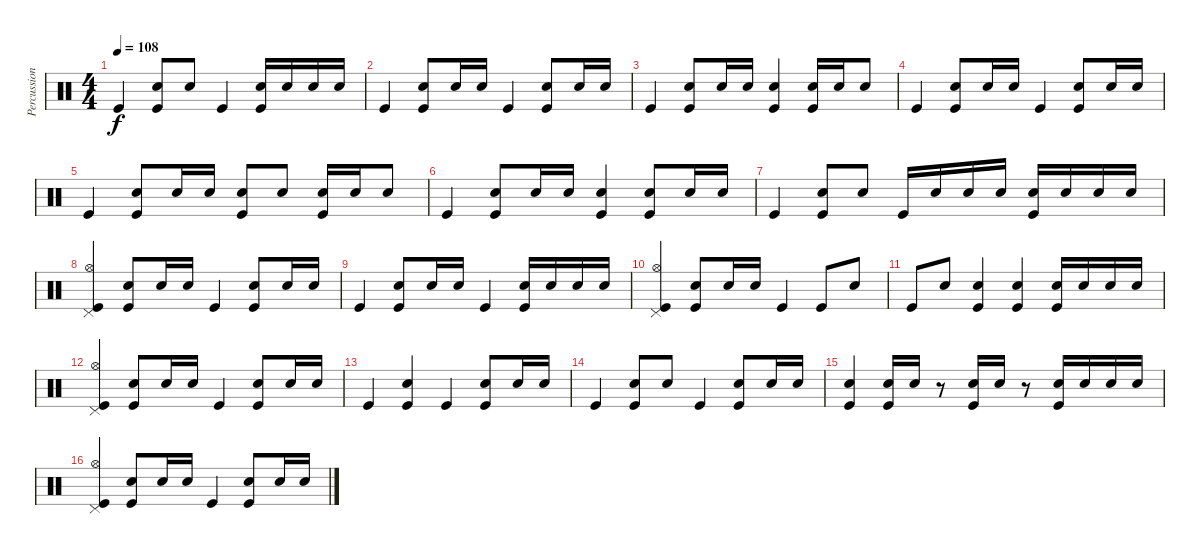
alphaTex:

\track ("Percussion" "Percussion") {instrument percussion}
\staff {score}
\articulation defaults
\ts (4 4)
\tempo 108
\clef neutral
\ks c "Kick (hit)".4{dy f}
("Snare (hit) 2" "Kick (hit)").8 "Snare (hit) 2".8 "Kick (hit)".4 ("Snare (hit) 2" "Kick (hit)").16 "Snare (hit) 2".16 "Snare (hit) 2".16 "Snare (hit) 2".16 |
"Kick (hit)".4 ("Snare (hit) 2" "Kick (hit)").8 "Snare (hit) 2".16 "Snare (hit) 2".16 "Kick (hit)".4 ("Snare (hit) 2" "Kick (hit)").8 "Snare (hit) 2".16 "Snare (hit) 2".16 |
"Kick (hit)".4 ("Snare (hit) 2" "Kick (hit)").8 "Snare (hit) 2".16 "Snare (hit) 2".16 ("Snare (hit) 2" "Kick (hit)").4 ("Snare (hit) 2" "Kick (hit)").16 "Snare (hit) 2".16 "Snare (hit) 2".8 |
"Kick (hit)".4 ("Snare (hit) 2" "Kick (hit)").8 "Snare (hit) 2".16 "Snare (hit) 2".16 "Kick (hit)".4 ("Snare (hit) 2" "Kick (hit)").8 "Snare (hit) 2".16 "Snare (hit) 2".16 |
"Kick (hit)".4 ("Snare (hit) 2" "Kick (hit)").8 "Snare (hit) 2".16 "Snare (hit) 2".16 ("Snare (hit) 2" "Kick (hit)").8 "Snare (hit) 2".8 ("Snare (hit) 2" "Kick (hit)").16 "Snare (hit) 2".16 "Snare (hit) 2".8 |
"Kick (hit)".4 ("Snare (hit) 2" "Kick (hit)").8 "Snare (hit) 2".16 "Snare (hit) 2".16 ("Snare (hit) 2" "Kick (hit)").4 ("Snare (hit) 2" "Kick (hit)").8 "Snare (hit) 2".16 "Snare (hit) 2".16 |
"Kick (hit)".4 ("Snare (hit) 2" "Kick (hit)").8 "Snare (hit) 2".8 "Kick (hit)".16 "Snare (hit) 2".16 "Snare (hit) 2".16 "Snare (hit) 2".16 ("Snare (hit) 2" "Kick (hit)").16 "Snare (hit) 2".16 "Snare (hit) 2".16 "Snare (hit) 2".16 |
("Hi-Hat (open)" "Pedal Hi-Hat (hit)" "Kick (hit)").4 ("Snare (hit) 2" "Kick (hit)").8 "Snare (hit) 2".16 "Snare (hit) 2".16 "Kick (hit)".4 ("Snare (hit) 2" "Kick (hit)").8 "Snare (hit) 2".16 "Snare (hit) 2".16 |
"Kick (hit)".4 ("Snare (hit) 2" "Kick (hit)").8 "Snare (hit) 2".16 "Snare (hit) 2".16 "Kick (hit)".4 ("Snare (hit) 2" "Kick (hit)").16 "Snare (hit) 2".16 "Snare (hit) 2".16 "Snare (hit) 2".16 |
("Hi-Hat (open)" "Pedal Hi-Hat (hit)" "Kick (hit)").4 ("Snare (hit) 2" "Kick (hit)").8 "Snare (hit) 2".16 "Snare (hit) 2".16 "Kick (hit)".4 "Kick (hit)".8 "Snare (hit) 2".8 |
"Kick (hit)".8 "Snare (hit) 2".8 ("Snare (hit) 2" "Kick (hit)").4 ("Snare (hit) 2" "Kick (hit)").4 ("Snare (hit) 2" "Kick (hit)").16 "Snare (hit) 2".16 "Snare (hit) 2".16 "Snare (hit) 2".16 |
("Hi-Hat (open)" "Pedal Hi-Hat (hit)" "Kick (hit)").4 ("Snare (hit) 2" "Kick (hit)").8 "Snare (hit) 2".16 "Snare (hit) 2".16 "Kick (hit)".4 ("Snare (hit) 2" "Kick (hit)").8 "Snare (hit) 2".16 "Snare (hit) 2".16 |
"Kick (hit)".4 ("Snare (hit) 2" "Kick (hit)").4 "Kick (hit)".4 ("Snare (hit) 2" "Kick (hit)").8 "Snare (hit) 2".16 "Snare (hit) 2".16 |
"Kick (hit)".4 ("Snare (hit) 2" "Kick (hit)").8 "Snare (hit) 2".8 "Kick (hit)".4 ("Snare (hit) 2" "Kick (hit)").8 "Snare (hit) 2".16 "Snare (hit) 2".16 |
("Snare (hit) 2" "Kick (hit)").4 ("Snare (hit) 2" "Kick (hit)").16 "Snare (hit) 2".16 r.8 ("Snare (hit) 2" "Kick (hit)").16 "Snare (hit) 2".16 r.8 ("Snare (hit) 2" "Kick (hit)").16 "Snare (hit) 2".16 "Snare (hit) 2".16 "Snare (hit) 2".16 |
("Hi-Hat (open)" "Pedal Hi-Hat (hit)" "Kick (hit)").4 ("Snare (hit) 2" "Kick (hit)").8 "Snare (hit) 2".16 "Snare (hit) 2".16 "Kick (hit)".4 ("Snare (hit) 2" "Kick (hit)").8 "Snare (hit) 2".16 "Snare (hit) 2".16
